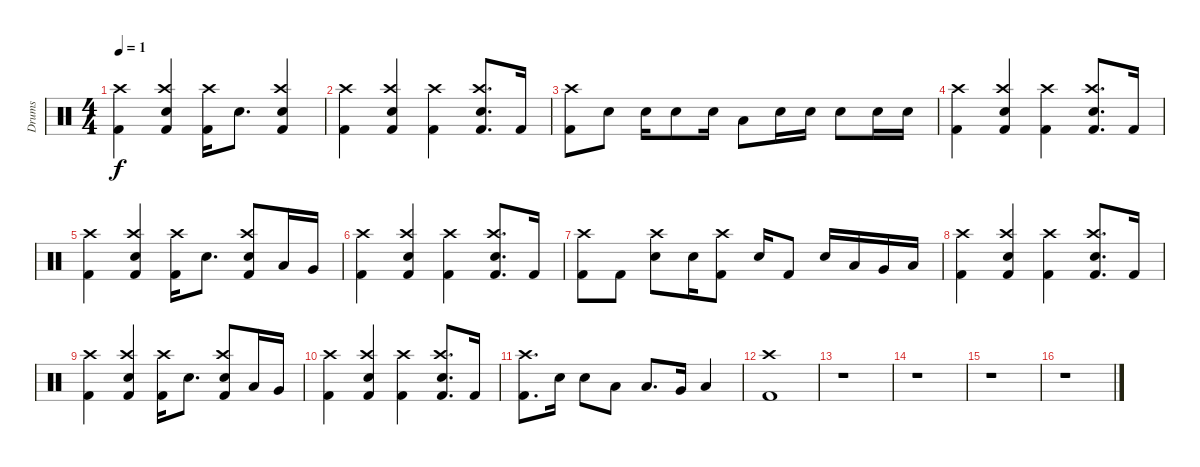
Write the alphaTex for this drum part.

\track ("Drums" "Drums") {instrument percussion}
\staff {score}
\articulation defaults
\ts (4 4)
\tempo 1
\clef neutral
\ks c
("Kick (hit) 2" "Crash high (hit)").4{dy f} ("Kick (hit) 2" "Crash high (hit)" "Snare (hit) 2").4 ("Kick (hit) 2" "Crash high (hit)").16 "Snare (hit) 2".8{d} ("Kick (hit) 2" "Crash high (hit)" "Snare (hit) 2").4 |
("Kick (hit) 2" "Crash high (hit)").4 ("Kick (hit) 2" "Crash high (hit)" "Snare (hit) 2").4 ("Kick (hit) 2" "Crash high (hit)").4 ("Kick (hit) 2" "Crash high (hit)" "Snare (hit) 2").8{d} "Kick (hit) 2".16 |
("Kick (hit) 2" "Crash high (hit)").8 "Snare (hit) 2".8 "Snare (hit) 2".16 "Snare (hit) 2".8 "Snare (hit) 2".16 "Low Tom (hit)".8 "Snare (hit) 2".16 "Snare (hit) 2".16 "Snare (hit) 2".8 "Snare (hit) 2".16 "Snare (hit) 2".16 |
("Kick (hit) 2" "Crash high (hit)").4 ("Kick (hit) 2" "Crash high (hit)" "Snare (hit) 2").4 ("Kick (hit) 2" "Crash high (hit)").4 ("Kick (hit) 2" "Crash high (hit)" "Snare (hit) 2").8{d} "Kick (hit) 2".16 |
("Kick (hit) 2" "Crash high (hit)").4 ("Kick (hit) 2" "Crash high (hit)" "Snare (hit) 2").4 ("Kick (hit) 2" "Crash high (hit)").16 "Snare (hit) 2".8{d} ("Kick (hit) 2" "Crash high (hit)" "Snare (hit) 2").8 "Low Tom (hit)".16 "Very Low Tom (hit)".16 |
("Kick (hit) 2" "Crash high (hit)").4 ("Kick (hit) 2" "Crash high (hit)" "Snare (hit) 2").4 ("Kick (hit) 2" "Crash high (hit)").4 ("Kick (hit) 2" "Crash high (hit)" "Snare (hit) 2").8{d} "Kick (hit) 2".16 |
("Kick (hit) 2" "Crash high (hit)").8 "Kick (hit) 2".8 ("Snare (hit) 2" "Crash high (hit)").8 "Snare (hit) 2".16 ("Kick (hit) 2" "Crash high (hit)").8 "Snare (hit) 2".16 "Kick (hit) 2".8 "Snare (hit) 2".16 "Low Tom (hit)".16 "Very Low Tom (hit)".16 "Low Floor Tom (hit)".16 |
("Kick (hit) 2" "Crash high (hit)").4 ("Kick (hit) 2" "Crash high (hit)" "Snare (hit) 2").4 ("Kick (hit) 2" "Crash high (hit)").4 ("Kick (hit) 2" "Crash high (hit)" "Snare (hit) 2").8{d} "Kick (hit) 2".16 |
("Kick (hit) 2" "Crash high (hit)").4 ("Kick (hit) 2" "Crash high (hit)" "Snare (hit) 2").4 ("Kick (hit) 2" "Crash high (hit)").16 "Snare (hit) 2".8{d} ("Kick (hit) 2" "Crash high (hit)" "Snare (hit) 2").8 "Low Tom (hit)".16 "Very Low Tom (hit)".16 |
("Kick (hit) 2" "Crash high (hit)").4 ("Kick (hit) 2" "Crash high (hit)" "Snare (hit) 2").4 ("Kick (hit) 2" "Crash high (hit)").4 ("Kick (hit) 2" "Crash high (hit)" "Snare (hit) 2").8{d} "Kick (hit) 2".16 |
("Kick (hit) 2" "Crash high (hit)").8{d} "Snare (hit) 2".16 "Snare (hit) 2".8 "Low Tom (hit)".8 "Low Tom (hit)".8{d} "Very Low Tom (hit)".16 "Low Floor Tom (hit)".4 |
("Kick (hit) 2" "Crash high (hit)").1 |
r.1 |
r.1 |
r.1 |
r.1
